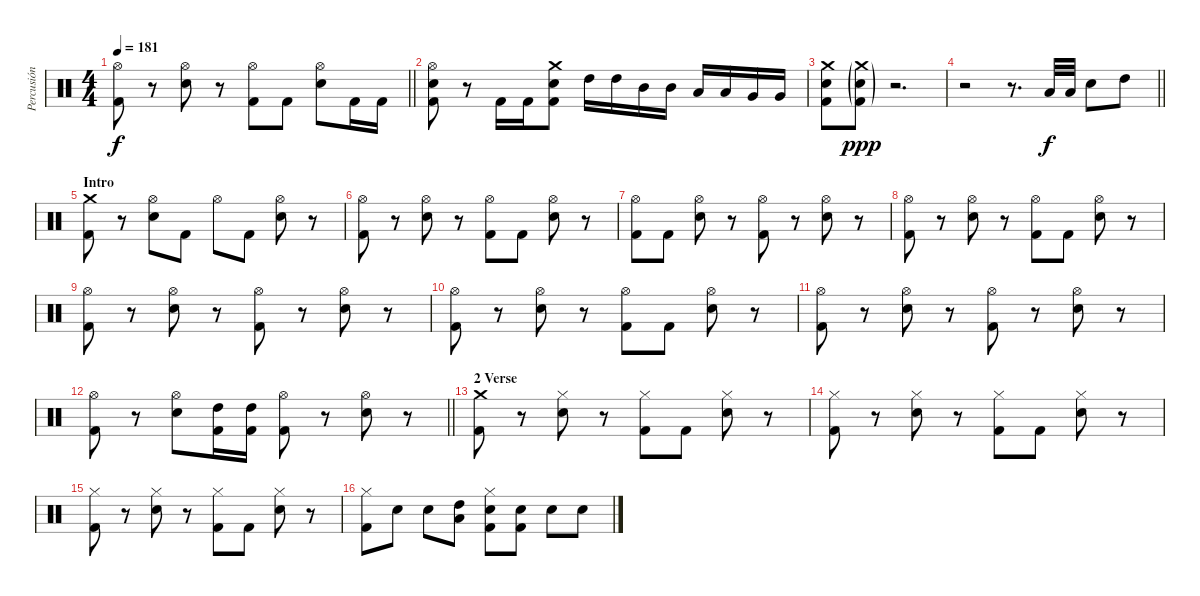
\track ("Percusión" "Percusión") {instrument percussion}
\staff {score}
\articulation defaults
\ts (4 4)
\tempo 181
\clef neutral
\barLineRight lightlight
\ks c
("Hi-Hat (open)" "Kick (hit) 2").8{dy f} r.8 ("Hi-Hat (open)" "Electric Snare (hit)").8 r.8 ("Hi-Hat (open)" "Kick (hit) 2").8 "Kick (hit) 2".8 ("Hi-Hat (open)" "Electric Snare (hit)").8 "Kick (hit) 2".16 "Kick (hit) 2".16 |
("Hi-Hat (open)" "Electric Snare (hit)" "Kick (hit) 2").8 r.8 "Kick (hit) 2".16 "Kick (hit) 2".16 ("Crash medium (hit)" "Electric Snare (hit)" "Kick (hit) 2").8 "High Tom (hit)".16 "High Tom (hit)".16 "Mid Tom (hit)".16 "Mid Tom (hit)".16 "Low Tom (hit)".16 "Low Tom (hit)".16 "Very Low Tom (hit)".16 "Very Low Tom (hit)".16 |
("Crash medium (hit)" "Electric Snare (hit)" "Kick (hit) 2").8 ("Crash medium (hit)"{g} "Electric Snare (hit)"{g} "Kick (hit) 2"{g}).8{dy ppp} r.2{d} |
\barLineRight lightlight
r.2 r.8{d} "Low Tom (hit)".32{dy f} "Low Tom (hit)".32 "Electric Snare (hit)".8 "High Tom (hit)".8 |
\section ("" "Intro")
("Crash medium (hit)" "Kick (hit) 2").8 r.8 ("Hi-Hat (open)" "Electric Snare (hit)").8 "Kick (hit) 2".8 "Hi-Hat (open)".8 "Kick (hit) 2".8 ("Hi-Hat (open)" "Electric Snare (hit)").8 r.8 |
("Hi-Hat (open)" "Kick (hit) 2").8 r.8 ("Hi-Hat (open)" "Electric Snare (hit)").8 r.8 ("Hi-Hat (open)" "Kick (hit) 2").8 "Kick (hit) 2".8 ("Hi-Hat (open)" "Electric Snare (hit)").8 r.8 |
("Hi-Hat (open)" "Kick (hit) 2").8 "Kick (hit) 2".8 ("Hi-Hat (open)" "Electric Snare (hit)").8 r.8 ("Hi-Hat (open)" "Kick (hit) 2").8 r.8 ("Hi-Hat (open)" "Electric Snare (hit)").8 r.8 |
("Hi-Hat (open)" "Kick (hit) 2").8 r.8 ("Hi-Hat (open)" "Electric Snare (hit)").8 r.8 ("Hi-Hat (open)" "Kick (hit) 2").8 "Kick (hit) 2".8 ("Hi-Hat (open)" "Electric Snare (hit)").8 r.8 |
("Hi-Hat (open)" "Kick (hit) 2").8 r.8 ("Hi-Hat (open)" "Electric Snare (hit)").8 r.8 ("Hi-Hat (open)" "Kick (hit) 2").8 r.8 ("Hi-Hat (open)" "Electric Snare (hit)").8 r.8 |
("Hi-Hat (open)" "Kick (hit) 2").8 r.8 ("Hi-Hat (open)" "Electric Snare (hit)").8 r.8 ("Hi-Hat (open)" "Kick (hit) 2").8 "Kick (hit) 2".8 ("Hi-Hat (open)" "Electric Snare (hit)").8 r.8 |
("Hi-Hat (open)" "Kick (hit) 2").8 r.8 ("Hi-Hat (open)" "Electric Snare (hit)").8 r.8 ("Hi-Hat (open)" "Kick (hit) 2").8 r.8 ("Hi-Hat (open)" "Electric Snare (hit)").8 r.8 |
\barLineRight lightlight
("Hi-Hat (open)" "Kick (hit) 2").8 r.8 ("Hi-Hat (open)" "Electric Snare (hit)").8 ("High Tom (hit)" "Kick (hit) 2").16 ("High Tom (hit)" "Kick (hit) 2").16 ("Hi-Hat (open)" "Kick (hit) 2").8 r.8 ("Hi-Hat (open)" "Electric Snare (hit)").8 r.8 |
\section ("" "2 Verse")
("Crash medium (hit)" "Kick (hit) 2").8 r.8 ("Hi-Hat (closed)" "Electric Snare (hit)").8 r.8 ("Hi-Hat (closed)" "Kick (hit) 2").8 "Kick (hit) 2".8 ("Hi-Hat (closed)" "Electric Snare (hit)").8 r.8 |
("Hi-Hat (closed)" "Kick (hit) 2").8 r.8 ("Hi-Hat (closed)" "Electric Snare (hit)").8 r.8 ("Hi-Hat (closed)" "Kick (hit) 2").8 "Kick (hit) 2".8 ("Hi-Hat (closed)" "Electric Snare (hit)").8 r.8 |
("Hi-Hat (closed)" "Kick (hit) 2").8 r.8 ("Hi-Hat (closed)" "Electric Snare (hit)").8 r.8 ("Hi-Hat (closed)" "Kick (hit) 2").8 "Kick (hit) 2".8 ("Hi-Hat (closed)" "Electric Snare (hit)").8 r.8 |
("Hi-Hat (closed)" "Kick (hit) 2").8 "Electric Snare (hit)".8 "Electric Snare (hit)".8 ("High Tom (hit)" "Low Tom (hit)").8 ("Hi-Hat (closed)" "Electric Snare (hit)" "Kick (hit) 2").8 ("Electric Snare (hit)" "Kick (hit) 2").8 "Electric Snare (hit)".8 "Electric Snare (hit)".8
